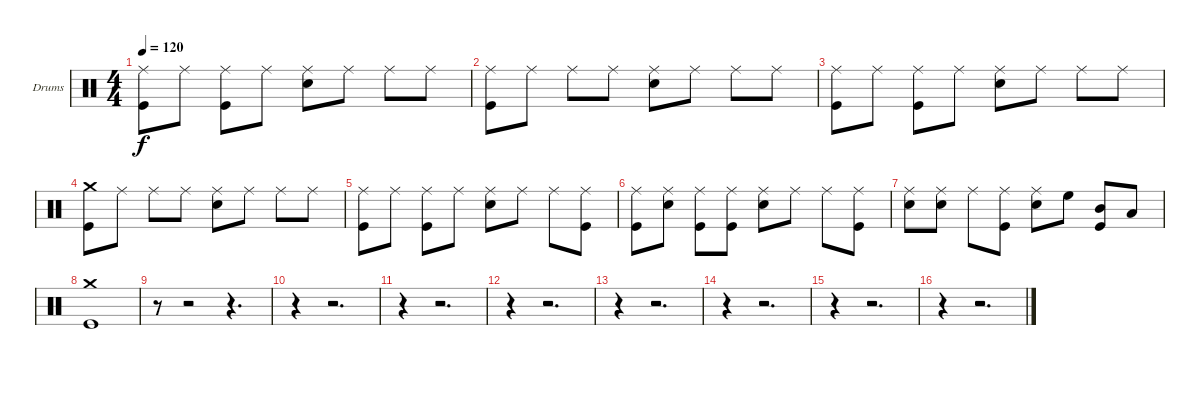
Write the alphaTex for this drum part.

\bracketExtendMode groupsimilarinstruments
\firstSystemTrackNameOrientation horizontal
\otherSystemsTrackNameOrientation horizontal
\track ("Drumkit (Christoph)" "Drums") {instrument percussion}
\staff {score}
\articulation defaults
\ts (4 4)
\tempo 120
\clef neutral
\ks c
("Ride (middle)" "Kick (hit)").8{dy f} "Ride (middle)".8 ("Ride (middle)" "Kick (hit)").8 "Ride (middle)".8 ("Ride (middle)" "Snare (hit) 2").8 "Ride (middle)".8 "Ride (middle)".8 "Ride (middle)".8 |
("Ride (middle)" "Kick (hit)").8 "Ride (middle)".8 "Ride (middle)".8 "Ride (middle)".8 ("Ride (middle)" "Snare (hit) 2").8 "Ride (middle)".8 "Ride (middle)".8 "Ride (middle)".8 |
("Ride (middle)" "Kick (hit)").8 "Ride (middle)".8 ("Ride (middle)" "Kick (hit)").8 "Ride (middle)".8 ("Ride (middle)" "Snare (hit) 2").8 "Ride (middle)".8 "Ride (middle)".8 "Ride (middle)".8 |
("Crash medium (hit)" "Kick (hit)").8 "Ride (middle)".8 "Ride (middle)".8 "Ride (middle)".8 ("Ride (middle)" "Snare (hit) 2").8 "Ride (middle)".8 "Ride (middle)".8 "Ride (middle)".8 |
("Ride (middle)" "Kick (hit)").8 "Ride (middle)".8 ("Ride (middle)" "Kick (hit)").8 "Ride (middle)".8 ("Ride (middle)" "Snare (hit) 2").8 "Ride (middle)".8 "Ride (middle)".8 ("Ride (middle)" "Kick (hit)").8 |
("Ride (middle)" "Kick (hit)").8 ("Ride (middle)" "Snare (hit) 2").8 ("Ride (middle)" "Kick (hit)").8 ("Ride (middle)" "Kick (hit)").8 ("Ride (middle)" "Snare (hit) 2").8 "Ride (middle)".8 "Ride (middle)".8 ("Ride (middle)" "Kick (hit)").8 |
("Ride (middle)" "Snare (hit) 2").8 ("Ride (middle)" "Snare (hit) 2").8 "Ride (middle)".8 ("Ride (middle)" "Kick (hit)").8 ("Ride (middle)" "Snare (hit) 2").8 "High Floor Tom (hit)".8 ("Kick (hit)" "Mid Tom (hit)").8 "Low Tom (hit)".8 |
("Crash medium (hit)" "Kick (hit)").1 |
r.8 r.2 r.4{d} |
r.4 r.2{d} |
r.4 r.2{d} |
r.4 r.2{d} |
r.4 r.2{d} |
r.4 r.2{d} |
r.4 r.2{d} |
r.4 r.2{d}
